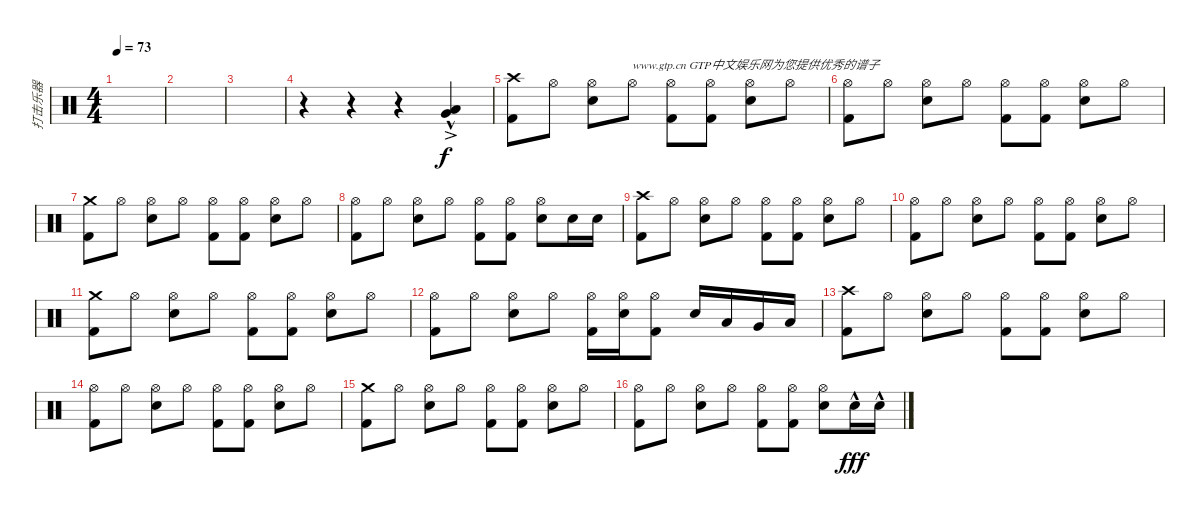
\track ("打击乐器" "打击乐器") {instrument percussion}
\staff {score}
\articulation defaults
\ts (4 4)
\tempo 73
\clef neutral
\ks c
|
|
|
r.4 r.4 r.4 ("Low Tom (hit)"{hac} "Very Low Tom (hit)"{ac}).4 |
("Crash high (hit)" "Kick (hit) 2").8{dy f} "Hi-Hat (open)".8 ("Hi-Hat (open)" "Electric Snare (hit)").8 "Hi-Hat (open)".8{txt "www.gtp.cn GTP中文娱乐网为您提供优秀的谱子"} ("Hi-Hat (open)" "Kick (hit) 2").8 ("Hi-Hat (open)" "Kick (hit) 2").8 ("Hi-Hat (open)" "Electric Snare (hit)").8 "Hi-Hat (open)".8 |
("Hi-Hat (open)" "Kick (hit) 2").8 "Hi-Hat (open)".8 ("Hi-Hat (open)" "Electric Snare (hit)").8 "Hi-Hat (open)".8 ("Hi-Hat (open)" "Kick (hit) 2").8 ("Hi-Hat (open)" "Kick (hit) 2").8 ("Hi-Hat (open)" "Electric Snare (hit)").8 "Hi-Hat (open)".8 |
("Crash medium (hit)" "Kick (hit) 2").8 "Hi-Hat (open)".8 ("Hi-Hat (open)" "Electric Snare (hit)").8 "Hi-Hat (open)".8 ("Hi-Hat (open)" "Kick (hit) 2").8 ("Hi-Hat (open)" "Kick (hit) 2").8 ("Hi-Hat (open)" "Electric Snare (hit)").8 "Hi-Hat (open)".8 |
("Hi-Hat (open)" "Kick (hit) 2").8 "Hi-Hat (open)".8 ("Hi-Hat (open)" "Electric Snare (hit)").8 "Hi-Hat (open)".8 ("Hi-Hat (open)" "Kick (hit) 2").8 ("Hi-Hat (open)" "Kick (hit) 2").8 ("Hi-Hat (open)" "Electric Snare (hit)").8 "Electric Snare (hit)".16 "Electric Snare (hit)".16 |
("Crash high (hit)" "Kick (hit) 2").8 "Hi-Hat (open)".8 ("Hi-Hat (open)" "Electric Snare (hit)").8 "Hi-Hat (open)".8 ("Hi-Hat (open)" "Kick (hit) 2").8 ("Hi-Hat (open)" "Kick (hit) 2").8 ("Hi-Hat (open)" "Electric Snare (hit)").8 "Hi-Hat (open)".8 |
("Hi-Hat (open)" "Kick (hit) 2").8 "Hi-Hat (open)".8 ("Hi-Hat (open)" "Electric Snare (hit)").8 "Hi-Hat (open)".8 ("Hi-Hat (open)" "Kick (hit) 2").8 ("Hi-Hat (open)" "Kick (hit) 2").8 ("Hi-Hat (open)" "Electric Snare (hit)").8 "Hi-Hat (open)".8 |
("Crash medium (hit)" "Kick (hit) 2").8 "Hi-Hat (open)".8 ("Hi-Hat (open)" "Electric Snare (hit)").8 "Hi-Hat (open)".8 ("Hi-Hat (open)" "Kick (hit) 2").8 ("Hi-Hat (open)" "Kick (hit) 2").8 ("Hi-Hat (open)" "Electric Snare (hit)").8 "Hi-Hat (open)".8 |
("Hi-Hat (open)" "Kick (hit) 2").8 "Hi-Hat (open)".8 ("Hi-Hat (open)" "Electric Snare (hit)").8 "Hi-Hat (open)".8 ("Hi-Hat (open)" "Kick (hit) 2").16 ("Hi-Hat (open)" "Electric Snare (hit)").16 ("Hi-Hat (open)" "Kick (hit) 2").8 "Electric Snare (hit)".16 "Low Tom (hit)".16 "Very Low Tom (hit)".16 "Low Floor Tom (hit)".16 |
("Crash high (hit)" "Kick (hit) 2").8 "Hi-Hat (open)".8 ("Hi-Hat (open)" "Electric Snare (hit)").8 "Hi-Hat (open)".8 ("Hi-Hat (open)" "Kick (hit) 2").8 ("Hi-Hat (open)" "Kick (hit) 2").8 ("Hi-Hat (open)" "Electric Snare (hit)").8 "Hi-Hat (open)".8 |
("Hi-Hat (open)" "Kick (hit) 2").8 "Hi-Hat (open)".8 ("Hi-Hat (open)" "Electric Snare (hit)").8 "Hi-Hat (open)".8 ("Hi-Hat (open)" "Kick (hit) 2").8 ("Hi-Hat (open)" "Kick (hit) 2").8 ("Hi-Hat (open)" "Electric Snare (hit)").8 "Hi-Hat (open)".8 |
("Crash medium (hit)" "Kick (hit) 2").8 "Hi-Hat (open)".8 ("Hi-Hat (open)" "Electric Snare (hit)").8 "Hi-Hat (open)".8 ("Hi-Hat (open)" "Kick (hit) 2").8 ("Hi-Hat (open)" "Kick (hit) 2").8 ("Hi-Hat (open)" "Electric Snare (hit)").8 "Hi-Hat (open)".8 |
("Hi-Hat (open)" "Kick (hit) 2").8 "Hi-Hat (open)".8 ("Hi-Hat (open)" "Electric Snare (hit)").8 "Hi-Hat (open)".8 ("Hi-Hat (open)" "Kick (hit) 2").8 ("Hi-Hat (open)" "Kick (hit) 2").8 ("Hi-Hat (open)" "Electric Snare (hit)").8 "Electric Snare (hit)"{hac}.16{dy fff} "Electric Snare (hit)"{hac}.16
